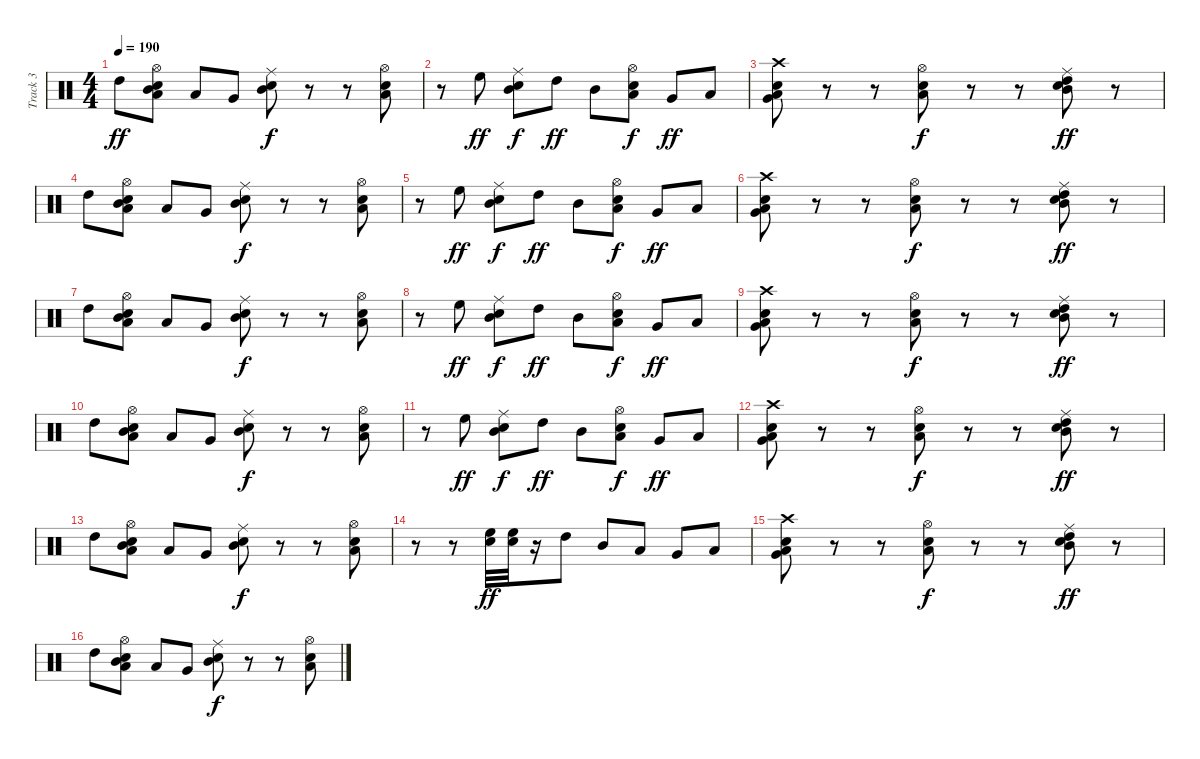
\track ("Track 3" "Track 3") {instrument percussion}
\staff {score}
\articulation defaults
\ts (4 4)
\tempo 190
\clef neutral
\ks c "High Tom (hit)".8{dy ff}
("Low Tom (hit)" "Snare (hit) 2" "Hi-Hat (open)" "Mid Tom (hit)").8 "Low Tom (hit)".8 "Very Low Tom (hit)".8 ("Mid Tom (hit)" "Snare (hit) 2" "Ride (middle)").8{dy f} r.8 r.8 ("Low Tom (hit)" "Snare (hit) 2" "Hi-Hat (open)").8 |
r.8 "High Floor Tom (hit)".8{dy ff} ("Mid Tom (hit)" "Snare (hit) 2" "Ride (middle)").8{dy f} "High Tom (hit)".8{dy ff} "Mid Tom (hit)".8 ("Low Tom (hit)" "Snare (hit) 2" "Hi-Hat (open)").8{dy f} "Very Low Tom (hit)".8{dy ff} "Low Floor Tom (hit)".8 |
("Very Low Tom (hit)" "Snare (hit) 2" "Crash high (hit)" "Low Tom (hit)").8 r.8 r.8 ("Low Tom (hit)" "Snare (hit) 2" "Hi-Hat (open)").8{dy f} r.8 r.8 ("Mid Tom (hit)" "Snare (hit) 2" "Ride (middle)" "High Tom (hit)").8{dy ff} r.8 |
"High Tom (hit)".8 ("Low Tom (hit)" "Snare (hit) 2" "Hi-Hat (open)" "Mid Tom (hit)").8 "Low Tom (hit)".8 "Very Low Tom (hit)".8 ("Mid Tom (hit)" "Snare (hit) 2" "Ride (middle)").8{dy f} r.8 r.8 ("Low Tom (hit)" "Snare (hit) 2" "Hi-Hat (open)").8 |
r.8 "High Floor Tom (hit)".8{dy ff} ("Mid Tom (hit)" "Snare (hit) 2" "Ride (middle)").8{dy f} "High Tom (hit)".8{dy ff} "Mid Tom (hit)".8 ("Low Tom (hit)" "Snare (hit) 2" "Hi-Hat (open)").8{dy f} "Very Low Tom (hit)".8{dy ff} "Low Floor Tom (hit)".8 |
("Very Low Tom (hit)" "Snare (hit) 2" "Crash high (hit)" "Low Tom (hit)").8 r.8 r.8 ("Low Tom (hit)" "Snare (hit) 2" "Hi-Hat (open)").8{dy f} r.8 r.8 ("Mid Tom (hit)" "Snare (hit) 2" "Ride (middle)" "High Tom (hit)").8{dy ff} r.8 |
"High Tom (hit)".8 ("Low Tom (hit)" "Snare (hit) 2" "Hi-Hat (open)" "Mid Tom (hit)").8 "Low Tom (hit)".8 "Very Low Tom (hit)".8 ("Mid Tom (hit)" "Snare (hit) 2" "Ride (middle)").8{dy f} r.8 r.8 ("Low Tom (hit)" "Snare (hit) 2" "Hi-Hat (open)").8 |
r.8 "High Floor Tom (hit)".8{dy ff} ("Mid Tom (hit)" "Snare (hit) 2" "Ride (middle)").8{dy f} "High Tom (hit)".8{dy ff} "Mid Tom (hit)".8 ("Low Tom (hit)" "Snare (hit) 2" "Hi-Hat (open)").8{dy f} "Very Low Tom (hit)".8{dy ff} "Low Floor Tom (hit)".8 |
("Very Low Tom (hit)" "Snare (hit) 2" "Crash high (hit)" "Low Tom (hit)").8 r.8 r.8 ("Low Tom (hit)" "Snare (hit) 2" "Hi-Hat (open)").8{dy f} r.8 r.8 ("Mid Tom (hit)" "Snare (hit) 2" "Ride (middle)" "High Tom (hit)").8{dy ff} r.8 |
"High Tom (hit)".8 ("Low Tom (hit)" "Snare (hit) 2" "Hi-Hat (open)" "Mid Tom (hit)").8 "Low Tom (hit)".8 "Very Low Tom (hit)".8 ("Mid Tom (hit)" "Snare (hit) 2" "Ride (middle)").8{dy f} r.8 r.8 ("Low Tom (hit)" "Snare (hit) 2" "Hi-Hat (open)").8 |
r.8 "High Floor Tom (hit)".8{dy ff} ("Mid Tom (hit)" "Snare (hit) 2" "Ride (middle)").8{dy f} "High Tom (hit)".8{dy ff} "Mid Tom (hit)".8 ("Low Tom (hit)" "Snare (hit) 2" "Hi-Hat (open)").8{dy f} "Very Low Tom (hit)".8{dy ff} "Low Floor Tom (hit)".8 |
("Very Low Tom (hit)" "Snare (hit) 2" "Crash high (hit)" "Low Tom (hit)").8 r.8 r.8 ("Low Tom (hit)" "Snare (hit) 2" "Hi-Hat (open)").8{dy f} r.8 r.8 ("Mid Tom (hit)" "Snare (hit) 2" "Ride (middle)" "High Tom (hit)").8{dy ff} r.8 |
"High Tom (hit)".8 ("Low Tom (hit)" "Snare (hit) 2" "Hi-Hat (open)" "Mid Tom (hit)").8 "Low Tom (hit)".8 "Very Low Tom (hit)".8 ("Mid Tom (hit)" "Snare (hit) 2" "Ride (middle)").8{dy f} r.8 r.8 ("Low Tom (hit)" "Snare (hit) 2" "Hi-Hat (open)").8 |
r.8 r.8 ("High Floor Tom (hit)" "Snare (hit) 2").32{dy ff} ("High Floor Tom (hit)" "Snare (hit) 2").32 r.16 "High Tom (hit)".8 "Mid Tom (hit)".8 "Low Tom (hit)".8 "Very Low Tom (hit)".8 "Low Floor Tom (hit)".8 |
("Very Low Tom (hit)" "Snare (hit) 2" "Crash high (hit)" "Low Tom (hit)").8 r.8 r.8 ("Low Tom (hit)" "Snare (hit) 2" "Hi-Hat (open)").8{dy f} r.8 r.8 ("Mid Tom (hit)" "Snare (hit) 2" "Ride (middle)" "High Tom (hit)").8{dy ff} r.8 |
"High Tom (hit)".8 ("Low Tom (hit)" "Snare (hit) 2" "Hi-Hat (open)" "Mid Tom (hit)").8 "Low Tom (hit)".8 "Very Low Tom (hit)".8 ("Mid Tom (hit)" "Snare (hit) 2" "Ride (middle)").8{dy f} r.8 r.8 ("Low Tom (hit)" "Snare (hit) 2" "Hi-Hat (open)").8
